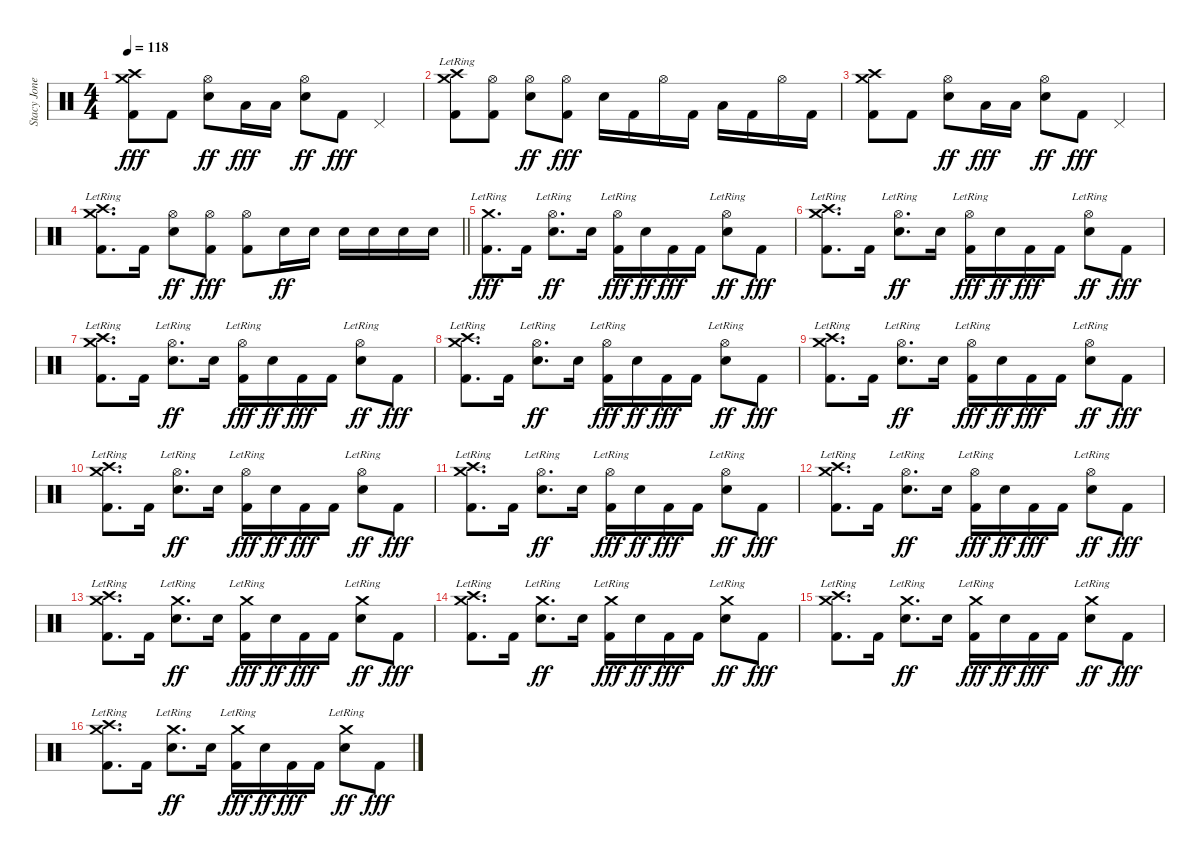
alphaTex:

\track ("Stacy Jones: Remo/Sabian HHX/AAX" "Stacy Jone") {instrument percussion}
\staff {score}
\articulation defaults
\ts (4 4)
\tempo 118
\clef neutral
\ks c
("Crash medium (hit)" "Crash high (hit)" "Kick (hit) 2").8{dy fff} "Kick (hit) 2".8 ("Hi-Hat (open)" "Electric Snare (hit)").8{dy ff} "Low Tom (hit)".16{dy fff} "Low Tom (hit)".16 ("Hi-Hat (open)" "Electric Snare (hit)").8{dy ff} "Kick (hit) 2".8{dy fff} "Pedal Hi-Hat (hit)".4 |
("Crash medium (hit)"{lr} "Crash high (hit)"{lr} "Kick (hit) 2").8 ("Hi-Hat (open)" "Kick (hit) 2").8 ("Hi-Hat (open)" "Electric Snare (hit)").8{dy ff} ("Hi-Hat (open)" "Kick (hit) 2").8{dy fff} "Electric Snare (hit)".16 "Kick (hit) 2".16 "Hi-Hat (open)".16 "Kick (hit) 2".16 "Low Tom (hit)".16 "Kick (hit) 2".16 "Hi-Hat (open)".16 "Kick (hit) 2".16 |
("Crash medium (hit)" "Crash high (hit)" "Kick (hit) 2").8 "Kick (hit) 2".8 ("Hi-Hat (open)" "Electric Snare (hit)").8{dy ff} "Low Tom (hit)".16{dy fff} "Low Tom (hit)".16 ("Hi-Hat (open)" "Electric Snare (hit)").8{dy ff} "Kick (hit) 2".8{dy fff} "Pedal Hi-Hat (hit)".4 |
\barLineRight lightlight
("Crash medium (hit)"{lr} "Crash high (hit)"{lr} "Kick (hit) 2").8{d} "Kick (hit) 2".16 ("Hi-Hat (open)" "Electric Snare (hit)").8{dy ff} ("Hi-Hat (open)" "Kick (hit) 2").8{dy fff} ("Hi-Hat (open)" "Kick (hit) 2").8 "Electric Snare (hit)".16{dy ff} "Electric Snare (hit)".16 "Electric Snare (hit)".16 "Electric Snare (hit)".16 "Electric Snare (hit)".16 "Electric Snare (hit)".16 |
("Crash medium (hit)"{lr} "Kick (hit) 2").8{d dy fff} "Kick (hit) 2".16 ("Hi-Hat (open)"{lr} "Electric Snare (hit)").8{d dy ff} "Electric Snare (hit)".16 ("Hi-Hat (open)"{lr} "Kick (hit) 2").16{dy fff} "Electric Snare (hit)".16{dy ff} "Kick (hit) 2".16{dy fff} "Kick (hit) 2".16 ("Hi-Hat (open)"{lr} "Electric Snare (hit)").8{dy ff} "Kick (hit) 2".8{dy fff} |
("Crash medium (hit)"{lr} "Crash high (hit)"{lr} "Kick (hit) 2").8{d} "Kick (hit) 2".16 ("Hi-Hat (open)"{lr} "Electric Snare (hit)").8{d dy ff} "Electric Snare (hit)".16 ("Hi-Hat (open)"{lr} "Kick (hit) 2").16{dy fff} "Electric Snare (hit)".16{dy ff} "Kick (hit) 2".16{dy fff} "Kick (hit) 2".16 ("Hi-Hat (open)"{lr} "Electric Snare (hit)").8{dy ff} "Kick (hit) 2".8{dy fff} |
("Crash medium (hit)"{lr} "Crash high (hit)"{lr} "Kick (hit) 2").8{d} "Kick (hit) 2".16 ("Hi-Hat (open)"{lr} "Electric Snare (hit)").8{d dy ff} "Electric Snare (hit)".16 ("Hi-Hat (open)"{lr} "Kick (hit) 2").16{dy fff} "Electric Snare (hit)".16{dy ff} "Kick (hit) 2".16{dy fff} "Kick (hit) 2".16 ("Hi-Hat (open)"{lr} "Electric Snare (hit)").8{dy ff} "Kick (hit) 2".8{dy fff} |
("Crash medium (hit)"{lr} "Crash high (hit)"{lr} "Kick (hit) 2").8{d} "Kick (hit) 2".16 ("Hi-Hat (open)"{lr} "Electric Snare (hit)").8{d dy ff} "Electric Snare (hit)".16 ("Hi-Hat (open)"{lr} "Kick (hit) 2").16{dy fff} "Electric Snare (hit)".16{dy ff} "Kick (hit) 2".16{dy fff} "Kick (hit) 2".16 ("Hi-Hat (open)"{lr} "Electric Snare (hit)").8{dy ff} "Kick (hit) 2".8{dy fff} |
("Crash medium (hit)"{lr} "Crash high (hit)"{lr} "Kick (hit) 2").8{d} "Kick (hit) 2".16 ("Hi-Hat (open)"{lr} "Electric Snare (hit)").8{d dy ff} "Electric Snare (hit)".16 ("Hi-Hat (open)"{lr} "Kick (hit) 2").16{dy fff} "Electric Snare (hit)".16{dy ff} "Kick (hit) 2".16{dy fff} "Kick (hit) 2".16 ("Hi-Hat (open)"{lr} "Electric Snare (hit)").8{dy ff} "Kick (hit) 2".8{dy fff} |
("Crash medium (hit)"{lr} "Crash high (hit)"{lr} "Kick (hit) 2").8{d} "Kick (hit) 2".16 ("Hi-Hat (open)"{lr} "Electric Snare (hit)").8{d dy ff} "Electric Snare (hit)".16 ("Hi-Hat (open)"{lr} "Kick (hit) 2").16{dy fff} "Electric Snare (hit)".16{dy ff} "Kick (hit) 2".16{dy fff} "Kick (hit) 2".16 ("Hi-Hat (open)"{lr} "Electric Snare (hit)").8{dy ff} "Kick (hit) 2".8{dy fff} |
("Crash medium (hit)"{lr} "Crash high (hit)"{lr} "Kick (hit) 2").8{d} "Kick (hit) 2".16 ("Hi-Hat (open)"{lr} "Electric Snare (hit)").8{d dy ff} "Electric Snare (hit)".16 ("Hi-Hat (open)"{lr} "Kick (hit) 2").16{dy fff} "Electric Snare (hit)".16{dy ff} "Kick (hit) 2".16{dy fff} "Kick (hit) 2".16 ("Hi-Hat (open)"{lr} "Electric Snare (hit)").8{dy ff} "Kick (hit) 2".8{dy fff} |
("Crash medium (hit)"{lr} "Crash high (hit)"{lr} "Kick (hit) 2").8{d} "Kick (hit) 2".16 ("Hi-Hat (open)"{lr} "Electric Snare (hit)").8{d dy ff} "Electric Snare (hit)".16 ("Hi-Hat (open)"{lr} "Kick (hit) 2").16{dy fff} "Electric Snare (hit)".16{dy ff} "Kick (hit) 2".16{dy fff} "Kick (hit) 2".16 ("Hi-Hat (open)"{lr} "Electric Snare (hit)").8{dy ff} "Kick (hit) 2".8{dy fff} |
("Crash medium (hit)"{lr} "Crash high (hit)"{lr} "Kick (hit) 2").8{d} "Kick (hit) 2".16 ("Crash medium (hit)"{lr} "Electric Snare (hit)").8{d dy ff} "Electric Snare (hit)".16 ("Crash medium (hit)"{lr} "Kick (hit) 2").16{dy fff} "Electric Snare (hit)".16{dy ff} "Kick (hit) 2".16{dy fff} "Kick (hit) 2".16 ("Crash medium (hit)"{lr} "Electric Snare (hit)").8{dy ff} "Kick (hit) 2".8{dy fff} |
("Crash medium (hit)"{lr} "Crash high (hit)"{lr} "Kick (hit) 2").8{d} "Kick (hit) 2".16 ("Crash medium (hit)"{lr} "Electric Snare (hit)").8{d dy ff} "Electric Snare (hit)".16 ("Crash medium (hit)"{lr} "Kick (hit) 2").16{dy fff} "Electric Snare (hit)".16{dy ff} "Kick (hit) 2".16{dy fff} "Kick (hit) 2".16 ("Crash medium (hit)"{lr} "Electric Snare (hit)").8{dy ff} "Kick (hit) 2".8{dy fff} |
("Crash medium (hit)"{lr} "Crash high (hit)"{lr} "Kick (hit) 2").8{d} "Kick (hit) 2".16 ("Crash medium (hit)"{lr} "Electric Snare (hit)").8{d dy ff} "Electric Snare (hit)".16 ("Crash medium (hit)"{lr} "Kick (hit) 2").16{dy fff} "Electric Snare (hit)".16{dy ff} "Kick (hit) 2".16{dy fff} "Kick (hit) 2".16 ("Crash medium (hit)"{lr} "Electric Snare (hit)").8{dy ff} "Kick (hit) 2".8{dy fff} |
("Crash medium (hit)"{lr} "Crash high (hit)"{lr} "Kick (hit) 2").8{d} "Kick (hit) 2".16 ("Crash medium (hit)"{lr} "Electric Snare (hit)").8{d dy ff} "Electric Snare (hit)".16 ("Crash medium (hit)"{lr} "Kick (hit) 2").16{dy fff} "Electric Snare (hit)".16{dy ff} "Kick (hit) 2".16{dy fff} "Kick (hit) 2".16 ("Crash medium (hit)"{lr} "Electric Snare (hit)").8{dy ff} "Kick (hit) 2".8{dy fff}
